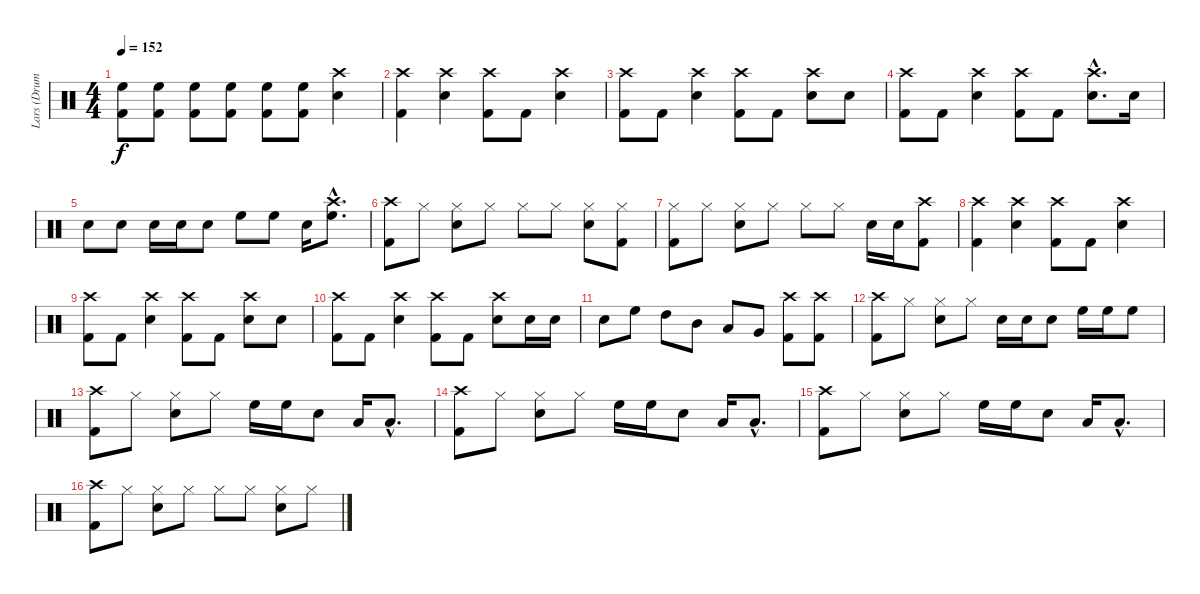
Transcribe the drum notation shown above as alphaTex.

\track ("Lars (Drums)" "Lars (Drum") {instrument percussion}
\staff {score}
\articulation defaults
\ts (4 4)
\tempo 152
\clef neutral
\ks c
("Kick (hit) 2" "High Floor Tom (hit)").8{dy f} ("Kick (hit) 2" "High Floor Tom (hit)").8 ("Kick (hit) 2" "High Floor Tom (hit)").8 ("Kick (hit) 2" "High Floor Tom (hit)").8 ("Kick (hit) 2" "High Floor Tom (hit)").8 ("Kick (hit) 2" "High Floor Tom (hit)").8 ("Crash high (hit)" "Snare (hit) 2").4 |
("Crash high (hit)" "Kick (hit) 2").4 ("Crash high (hit)" "Snare (hit) 2").4 ("Crash high (hit)" "Kick (hit) 2").8 "Kick (hit) 2".8 ("Crash high (hit)" "Snare (hit) 2").4 |
("Crash high (hit)" "Kick (hit) 2").8 "Kick (hit) 2".8 ("Crash high (hit)" "Snare (hit) 2").4 ("Crash high (hit)" "Kick (hit) 2").8 "Kick (hit) 2".8 ("Crash high (hit)" "Snare (hit) 2").8 "Snare (hit) 2".8 |
("Crash high (hit)" "Kick (hit) 2").8 "Kick (hit) 2".8 ("Crash high (hit)" "Snare (hit) 2").4 ("Crash high (hit)" "Kick (hit) 2").8 "Kick (hit) 2".8 ("Crash high (hit)"{hac} "Snare (hit) 2"{hac}).8{d} "Snare (hit) 2".16 |
"Snare (hit) 2".8 "Snare (hit) 2".8 "Snare (hit) 2".16 "Snare (hit) 2".16 "Snare (hit) 2".8 "High Floor Tom (hit)".8 "High Floor Tom (hit)".8 "Snare (hit) 2".16 ("High Floor Tom (hit)"{hac} "Crash high (hit)"{hac}).8{d} |
("Crash high (hit)" "Kick (hit) 2").8 "Hi-Hat (closed)".8 ("Hi-Hat (closed)" "Snare (hit) 2").8 "Hi-Hat (closed)".8 "Hi-Hat (closed)".8 "Hi-Hat (closed)".8 ("Hi-Hat (closed)" "Snare (hit) 2").8 ("Hi-Hat (closed)" "Kick (hit) 2").8 |
("Hi-Hat (closed)" "Kick (hit) 2").8 "Hi-Hat (closed)".8 ("Hi-Hat (closed)" "Snare (hit) 2").8 "Hi-Hat (closed)".8 "Hi-Hat (closed)".8 "Hi-Hat (closed)".8 "Snare (hit) 2".16 "Snare (hit) 2".16 ("Crash high (hit)" "Kick (hit) 2").8 |
("Crash high (hit)" "Kick (hit) 2").4 ("Crash high (hit)" "Snare (hit) 2").4 ("Crash high (hit)" "Kick (hit) 2").8 "Kick (hit) 2".8 ("Crash high (hit)" "Snare (hit) 2").4 |
("Crash high (hit)" "Kick (hit) 2").8 "Kick (hit) 2".8 ("Crash high (hit)" "Snare (hit) 2").4 ("Crash high (hit)" "Kick (hit) 2").8 "Kick (hit) 2".8 ("Crash high (hit)" "Snare (hit) 2").8 "Snare (hit) 2".8 |
("Crash high (hit)" "Kick (hit) 2").8 "Kick (hit) 2".8 ("Crash high (hit)" "Snare (hit) 2").4 ("Crash high (hit)" "Kick (hit) 2").8 "Kick (hit) 2".8 ("Crash high (hit)" "Snare (hit) 2").8 "Snare (hit) 2".16 "Snare (hit) 2".16 |
"Snare (hit) 2".8 "High Floor Tom (hit)".8 "High Tom (hit)".8 "Mid Tom (hit)".8 "Low Tom (hit)".8 "Very Low Tom (hit)".8 ("Crash high (hit)" "Kick (hit) 2").8 ("Crash high (hit)" "Kick (hit) 2").8 |
("Crash high (hit)" "Kick (hit) 2").8 "Hi-Hat (closed)".8 ("Hi-Hat (closed)" "Snare (hit) 2").8 "Hi-Hat (closed)".8 "Snare (hit) 2".16 "Snare (hit) 2".16 "Snare (hit) 2".8 "High Floor Tom (hit)".16 "High Floor Tom (hit)".16 "High Floor Tom (hit)".8 |
("Crash high (hit)" "Kick (hit) 2").8 "Hi-Hat (closed)".8 ("Hi-Hat (closed)" "Snare (hit) 2").8 "Hi-Hat (closed)".8 "High Floor Tom (hit)".16 "High Floor Tom (hit)".16 "Snare (hit) 2".8 "Low Tom (hit)".16 "Low Tom (hit)"{hac}.8{d} |
("Crash high (hit)" "Kick (hit) 2").8 "Hi-Hat (closed)".8 ("Hi-Hat (closed)" "Snare (hit) 2").8 "Hi-Hat (closed)".8 "High Floor Tom (hit)".16 "High Floor Tom (hit)".16 "Snare (hit) 2".8 "Low Tom (hit)".16 "Low Tom (hit)"{hac}.8{d} |
("Crash high (hit)" "Kick (hit) 2").8 "Hi-Hat (closed)".8 ("Hi-Hat (closed)" "Snare (hit) 2").8 "Hi-Hat (closed)".8 "High Floor Tom (hit)".16 "High Floor Tom (hit)".16 "Snare (hit) 2".8 "Low Tom (hit)".16 "Low Tom (hit)"{hac}.8{d} |
("Crash high (hit)" "Kick (hit) 2").8 "Hi-Hat (closed)".8 ("Hi-Hat (closed)" "Snare (hit) 2").8 "Hi-Hat (closed)".8 "Hi-Hat (closed)".8 "Hi-Hat (closed)".8 ("Hi-Hat (closed)" "Snare (hit) 2").8 "Hi-Hat (closed)".8
